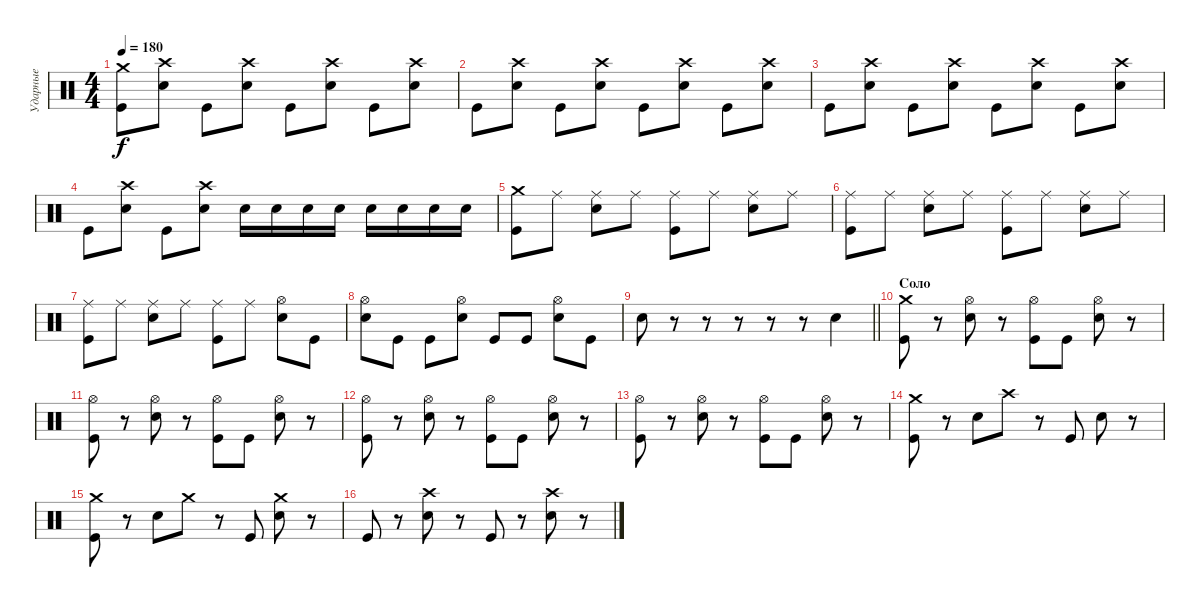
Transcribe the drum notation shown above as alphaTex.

\track ("Ударные" "Ударные") {instrument percussion}
\staff {score}
\articulation defaults
\ts (4 4)
\tempo 180
\clef neutral
\ks c
("Crash medium (hit)" "Kick (hit)").8{dy f} ("Crash high (hit)" "Electric Snare (hit)").8 "Kick (hit)".8 ("Crash high (hit)" "Electric Snare (hit)").8 "Kick (hit)".8 ("Crash high (hit)" "Electric Snare (hit)").8 "Kick (hit)".8 ("Crash high (hit)" "Electric Snare (hit)").8 |
"Kick (hit)".8 ("Crash high (hit)" "Electric Snare (hit)").8 "Kick (hit)".8 ("Crash high (hit)" "Electric Snare (hit)").8 "Kick (hit)".8 ("Crash high (hit)" "Electric Snare (hit)").8 "Kick (hit)".8 ("Crash high (hit)" "Electric Snare (hit)").8 |
"Kick (hit)".8 ("Crash high (hit)" "Electric Snare (hit)").8 "Kick (hit)".8 ("Crash high (hit)" "Electric Snare (hit)").8 "Kick (hit)".8 ("Crash high (hit)" "Electric Snare (hit)").8 "Kick (hit)".8 ("Crash high (hit)" "Electric Snare (hit)").8 |
"Kick (hit)".8 ("Crash high (hit)" "Electric Snare (hit)").8 "Kick (hit)".8 ("Crash high (hit)" "Electric Snare (hit)").8 "Electric Snare (hit)".16 "Electric Snare (hit)".16 "Electric Snare (hit)".16 "Electric Snare (hit)".16 "Electric Snare (hit)".16 "Electric Snare (hit)".16 "Electric Snare (hit)".16 "Electric Snare (hit)".16 |
("Crash medium (hit)" "Kick (hit)").8 "Ride (middle)".8 ("Ride (middle)" "Electric Snare (hit)").8 "Ride (middle)".8 ("Ride (middle)" "Kick (hit)").8 "Ride (middle)".8 ("Ride (middle)" "Electric Snare (hit)").8 "Ride (middle)".8 |
("Ride (middle)" "Kick (hit)").8 "Ride (middle)".8 ("Ride (middle)" "Electric Snare (hit)").8 "Ride (middle)".8 ("Ride (middle)" "Kick (hit)").8 "Ride (middle)".8 ("Ride (middle)" "Electric Snare (hit)").8 "Ride (middle)".8 |
("Ride (middle)" "Kick (hit)").8 "Ride (middle)".8 ("Ride (middle)" "Electric Snare (hit)").8 "Ride (middle)".8 ("Ride (middle)" "Kick (hit)").8 "Ride (middle)".8 ("Electric Snare (hit)" "Hi-Hat (open)").8 "Kick (hit)".8 |
("Electric Snare (hit)" "Hi-Hat (open)").8 "Kick (hit)".8 "Kick (hit)".8 ("Electric Snare (hit)" "Hi-Hat (open)").8 "Kick (hit)".8 "Kick (hit)".8 ("Electric Snare (hit)" "Hi-Hat (open)").8 "Kick (hit)".8 |
\barLineRight lightlight "Electric Snare (hit)".8
r.8 r.8 r.8 r.8 r.8 "Electric Snare (hit)".4 |
\section ("" "Соло")
("Crash medium (hit)" "Kick (hit)").8 r.8 ("Hi-Hat (open)" "Electric Snare (hit)").8 r.8 ("Hi-Hat (open)" "Kick (hit)").8 "Kick (hit)".8 ("Hi-Hat (open)" "Electric Snare (hit)").8 r.8 |
("Hi-Hat (open)" "Kick (hit)").8 r.8 ("Hi-Hat (open)" "Electric Snare (hit)").8 r.8 ("Hi-Hat (open)" "Kick (hit)").8 "Kick (hit)".8 ("Hi-Hat (open)" "Electric Snare (hit)").8 r.8 |
("Hi-Hat (open)" "Kick (hit)").8 r.8 ("Hi-Hat (open)" "Electric Snare (hit)").8 r.8 ("Hi-Hat (open)" "Kick (hit)").8 "Kick (hit)".8 ("Hi-Hat (open)" "Electric Snare (hit)").8 r.8 |
("Hi-Hat (open)" "Kick (hit)").8 r.8 ("Hi-Hat (open)" "Electric Snare (hit)").8 r.8 ("Hi-Hat (open)" "Kick (hit)").8 "Kick (hit)".8 ("Hi-Hat (open)" "Electric Snare (hit)").8 r.8 |
("Crash medium (hit)" "Kick (hit)").8 r.8 "Electric Snare (hit)".8 "Crash high (hit)".8 r.8 "Kick (hit)".8 "Electric Snare (hit)".8 r.8 |
("Crash medium (hit)" "Kick (hit)").8 r.8 "Electric Snare (hit)".8 "Crash medium (hit)".8 r.8 "Kick (hit)".8 ("Crash medium (hit)" "Electric Snare (hit)").8 r.8 |
"Kick (hit)".8 r.8 ("Crash high (hit)" "Electric Snare (hit)").8 r.8 "Kick (hit)".8 r.8 ("Crash high (hit)" "Electric Snare (hit)").8 r.8
